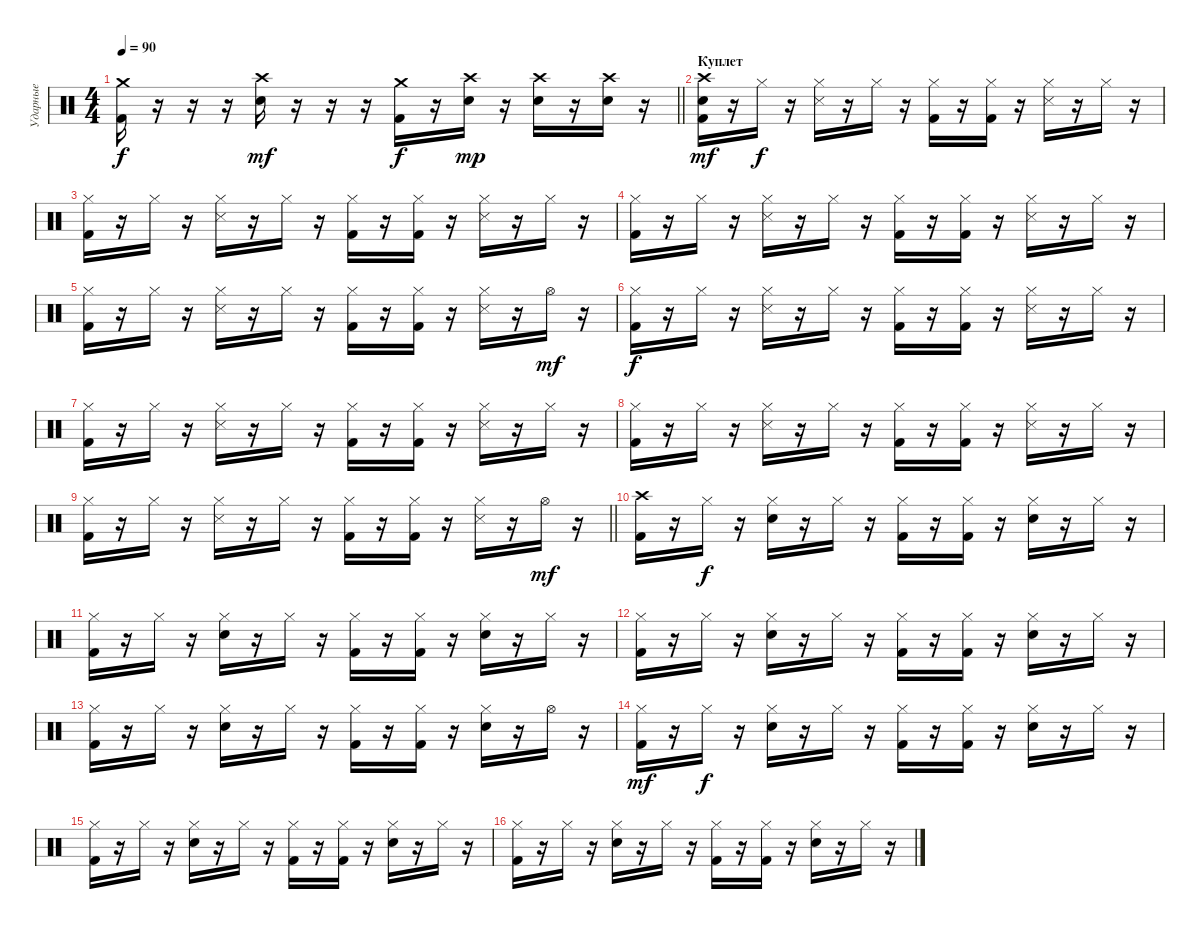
\track ("Ударные" "Ударные") {instrument percussion}
\staff {score}
\articulation defaults
\ts (4 4)
\tempo 90
\clef neutral
\barLineRight lightlight
\ks c
("Crash medium (hit)" "Kick (hit) 2").16{dy f} r.16 r.16 r.16 ("Crash high (hit)" "Electric Snare (hit)").16{dy mf} r.16 r.16 r.16 ("Crash medium (hit)" "Kick (hit) 2").16{dy f} r.16 ("Crash high (hit)" "Electric Snare (hit)").16{dy mp} r.16 ("Crash high (hit)" "Electric Snare (hit)").16 r.16 ("Crash high (hit)" "Electric Snare (hit)").16 r.16 |
\section ("" "Куплет")
("Crash high (hit)" "Electric Snare (hit)" "Kick (hit) 2").16{dy mf} r.16 "Hi-Hat (closed)".16{dy f} r.16 ("Hi-Hat (closed)" "Snare (side stick) 3").16 r.16 "Hi-Hat (closed)".16 r.16 ("Hi-Hat (closed)" "Kick (hit) 2").16 r.16 ("Hi-Hat (closed)" "Kick (hit) 2").16 r.16 ("Hi-Hat (closed)" "Snare (side stick) 3").16 r.16 "Hi-Hat (closed)".16 r.16 |
("Hi-Hat (closed)" "Kick (hit) 2").16 r.16 "Hi-Hat (closed)".16 r.16 ("Hi-Hat (closed)" "Snare (side stick) 3").16 r.16 "Hi-Hat (closed)".16 r.16 ("Hi-Hat (closed)" "Kick (hit) 2").16 r.16 ("Hi-Hat (closed)" "Kick (hit) 2").16 r.16 ("Hi-Hat (closed)" "Snare (side stick) 3").16 r.16 "Hi-Hat (closed)".16 r.16 |
("Hi-Hat (closed)" "Kick (hit) 2").16 r.16 "Hi-Hat (closed)".16 r.16 ("Hi-Hat (closed)" "Snare (side stick) 3").16 r.16 "Hi-Hat (closed)".16 r.16 ("Hi-Hat (closed)" "Kick (hit) 2").16 r.16 ("Hi-Hat (closed)" "Kick (hit) 2").16 r.16 ("Hi-Hat (closed)" "Snare (side stick) 3").16 r.16 "Hi-Hat (closed)".16 r.16 |
("Hi-Hat (closed)" "Kick (hit) 2").16 r.16 "Hi-Hat (closed)".16 r.16 ("Hi-Hat (closed)" "Snare (side stick) 3").16 r.16 "Hi-Hat (closed)".16 r.16 ("Hi-Hat (closed)" "Kick (hit) 2").16 r.16 ("Hi-Hat (closed)" "Kick (hit) 2").16 r.16 ("Hi-Hat (closed)" "Snare (side stick) 3").16 r.16 "Hi-Hat (open)".16{dy mf} r.16 |
("Hi-Hat (closed)" "Kick (hit) 2").16{dy f} r.16 "Hi-Hat (closed)".16 r.16 ("Hi-Hat (closed)" "Snare (side stick) 3").16 r.16 "Hi-Hat (closed)".16 r.16 ("Hi-Hat (closed)" "Kick (hit) 2").16 r.16 ("Hi-Hat (closed)" "Kick (hit) 2").16 r.16 ("Hi-Hat (closed)" "Snare (side stick) 3").16 r.16 "Hi-Hat (closed)".16 r.16 |
("Hi-Hat (closed)" "Kick (hit) 2").16 r.16 "Hi-Hat (closed)".16 r.16 ("Hi-Hat (closed)" "Snare (side stick) 3").16 r.16 "Hi-Hat (closed)".16 r.16 ("Hi-Hat (closed)" "Kick (hit) 2").16 r.16 ("Hi-Hat (closed)" "Kick (hit) 2").16 r.16 ("Hi-Hat (closed)" "Snare (side stick) 3").16 r.16 "Hi-Hat (closed)".16 r.16 |
("Hi-Hat (closed)" "Kick (hit) 2").16 r.16 "Hi-Hat (closed)".16 r.16 ("Hi-Hat (closed)" "Snare (side stick) 3").16 r.16 "Hi-Hat (closed)".16 r.16 ("Hi-Hat (closed)" "Kick (hit) 2").16 r.16 ("Hi-Hat (closed)" "Kick (hit) 2").16 r.16 ("Hi-Hat (closed)" "Snare (side stick) 3").16 r.16 "Hi-Hat (closed)".16 r.16 |
\barLineRight lightlight
("Hi-Hat (closed)" "Kick (hit) 2").16 r.16 "Hi-Hat (closed)".16 r.16 ("Hi-Hat (closed)" "Snare (side stick) 3").16 r.16 "Hi-Hat (closed)".16 r.16 ("Hi-Hat (closed)" "Kick (hit) 2").16 r.16 ("Hi-Hat (closed)" "Kick (hit) 2").16 r.16 ("Hi-Hat (closed)" "Snare (side stick) 3").16 r.16 "Hi-Hat (open)".16{dy mf} r.16 |
("Crash high (hit)" "Kick (hit) 2").16 r.16 "Hi-Hat (closed)".16{dy f} r.16 ("Hi-Hat (closed)" "Electric Snare (hit)").16 r.16 "Hi-Hat (closed)".16 r.16 ("Hi-Hat (closed)" "Kick (hit) 2").16 r.16 ("Hi-Hat (closed)" "Kick (hit) 2").16 r.16 ("Hi-Hat (closed)" "Electric Snare (hit)").16 r.16 "Hi-Hat (closed)".16 r.16 |
("Hi-Hat (closed)" "Kick (hit) 2").16 r.16 "Hi-Hat (closed)".16 r.16 ("Hi-Hat (closed)" "Electric Snare (hit)").16 r.16 "Hi-Hat (closed)".16 r.16 ("Hi-Hat (closed)" "Kick (hit) 2").16 r.16 ("Hi-Hat (closed)" "Kick (hit) 2").16 r.16 ("Hi-Hat (closed)" "Electric Snare (hit)").16 r.16 "Hi-Hat (closed)".16 r.16 |
("Hi-Hat (closed)" "Kick (hit) 2").16 r.16 "Hi-Hat (closed)".16 r.16 ("Hi-Hat (closed)" "Electric Snare (hit)").16 r.16 "Hi-Hat (closed)".16 r.16 ("Hi-Hat (closed)" "Kick (hit) 2").16 r.16 ("Hi-Hat (closed)" "Kick (hit) 2").16 r.16 ("Hi-Hat (closed)" "Electric Snare (hit)").16 r.16 "Hi-Hat (closed)".16 r.16 |
("Hi-Hat (closed)" "Kick (hit) 2").16 r.16 "Hi-Hat (closed)".16 r.16 ("Hi-Hat (closed)" "Electric Snare (hit)").16 r.16 "Hi-Hat (closed)".16 r.16 ("Hi-Hat (closed)" "Kick (hit) 2").16 r.16 ("Hi-Hat (closed)" "Kick (hit) 2").16 r.16 ("Hi-Hat (closed)" "Electric Snare (hit)").16 r.16 "Hi-Hat (open)".16 r.16 |
("Hi-Hat (closed)" "Kick (hit) 2").16{dy mf} r.16 "Hi-Hat (closed)".16{dy f} r.16 ("Hi-Hat (closed)" "Electric Snare (hit)").16 r.16 "Hi-Hat (closed)".16 r.16 ("Hi-Hat (closed)" "Kick (hit) 2").16 r.16 ("Hi-Hat (closed)" "Kick (hit) 2").16 r.16 ("Hi-Hat (closed)" "Electric Snare (hit)").16 r.16 "Hi-Hat (closed)".16 r.16 |
("Hi-Hat (closed)" "Kick (hit) 2").16 r.16 "Hi-Hat (closed)".16 r.16 ("Hi-Hat (closed)" "Electric Snare (hit)").16 r.16 "Hi-Hat (closed)".16 r.16 ("Hi-Hat (closed)" "Kick (hit) 2").16 r.16 ("Hi-Hat (closed)" "Kick (hit) 2").16 r.16 ("Hi-Hat (closed)" "Electric Snare (hit)").16 r.16 "Hi-Hat (closed)".16 r.16 |
("Hi-Hat (closed)" "Kick (hit) 2").16 r.16 "Hi-Hat (closed)".16 r.16 ("Hi-Hat (closed)" "Electric Snare (hit)").16 r.16 "Hi-Hat (closed)".16 r.16 ("Hi-Hat (closed)" "Kick (hit) 2").16 r.16 ("Hi-Hat (closed)" "Kick (hit) 2").16 r.16 ("Hi-Hat (closed)" "Electric Snare (hit)").16 r.16 "Hi-Hat (closed)".16 r.16
